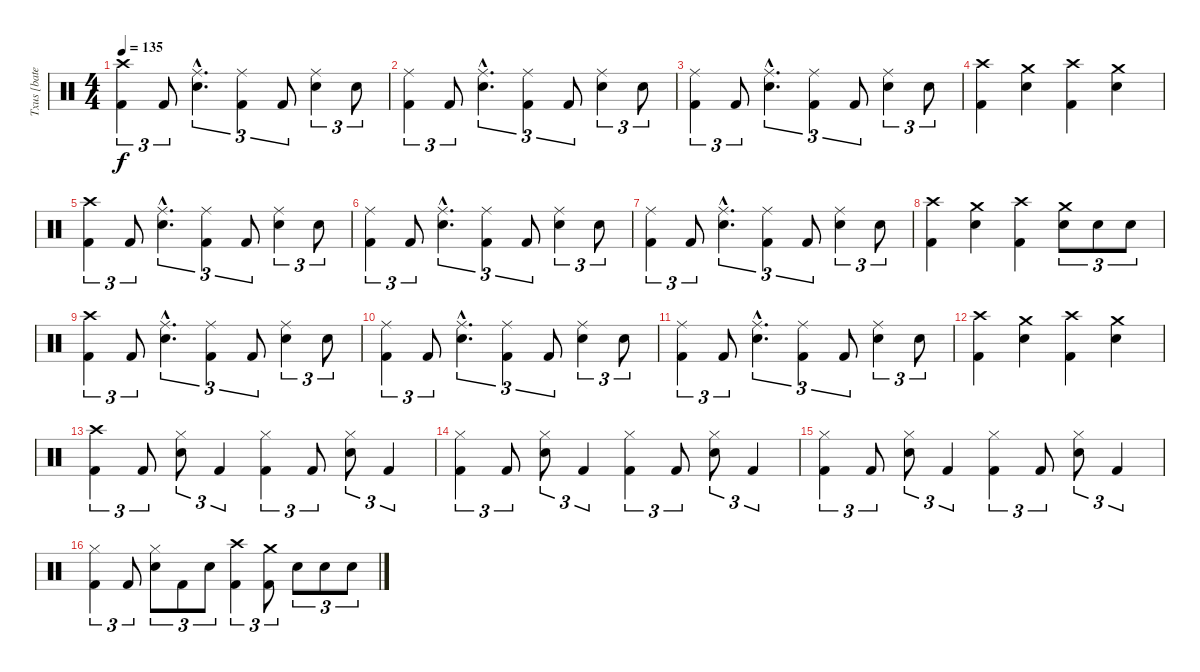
\track ("Txus [bateria]" "Txus [bate") {instrument percussion}
\staff {score}
\articulation defaults
\ts (4 4)
\tempo 135
\clef neutral
\ks c
("Crash high (hit)" "Kick (hit) 2").4{tu (3 2) dy f} "Kick (hit) 2".8{tu (3 2)} ("Ride (middle)"{hac} "Snare (hit) 2"{hac}).4{d tu (3 2)} ("Ride (middle)" "Kick (hit) 2").4{tu (3 2)} "Kick (hit) 2".8{tu (3 2)} ("Ride (middle)" "Snare (hit) 2").4{tu (3 2)} "Snare (hit) 2".8{tu (3 2)} |
("Ride (middle)" "Kick (hit) 2").4{tu (3 2)} "Kick (hit) 2".8{tu (3 2)} ("Ride (middle)"{hac} "Snare (hit) 2"{hac}).4{d tu (3 2)} ("Ride (middle)" "Kick (hit) 2").4{tu (3 2)} "Kick (hit) 2".8{tu (3 2)} ("Ride (middle)" "Snare (hit) 2").4{tu (3 2)} "Snare (hit) 2".8{tu (3 2)} |
("Ride (middle)" "Kick (hit) 2").4{tu (3 2)} "Kick (hit) 2".8{tu (3 2)} ("Ride (middle)"{hac} "Snare (hit) 2"{hac}).4{d tu (3 2)} ("Ride (middle)" "Kick (hit) 2").4{tu (3 2)} "Kick (hit) 2".8{tu (3 2)} ("Ride (middle)" "Snare (hit) 2").4{tu (3 2)} "Snare (hit) 2".8{tu (3 2)} |
("Crash high (hit)" "Kick (hit) 2").4 ("Crash medium (hit)" "Snare (hit) 2").4 ("Crash high (hit)" "Kick (hit) 2").4 ("Crash medium (hit)" "Snare (hit) 2").4 |
("Crash high (hit)" "Kick (hit) 2").4{tu (3 2)} "Kick (hit) 2".8{tu (3 2)} ("Ride (middle)"{hac} "Snare (hit) 2"{hac}).4{d tu (3 2)} ("Ride (middle)" "Kick (hit) 2").4{tu (3 2)} "Kick (hit) 2".8{tu (3 2)} ("Ride (middle)" "Snare (hit) 2").4{tu (3 2)} "Snare (hit) 2".8{tu (3 2)} |
("Ride (middle)" "Kick (hit) 2").4{tu (3 2)} "Kick (hit) 2".8{tu (3 2)} ("Ride (middle)"{hac} "Snare (hit) 2"{hac}).4{d tu (3 2)} ("Ride (middle)" "Kick (hit) 2").4{tu (3 2)} "Kick (hit) 2".8{tu (3 2)} ("Ride (middle)" "Snare (hit) 2").4{tu (3 2)} "Snare (hit) 2".8{tu (3 2)} |
("Ride (middle)" "Kick (hit) 2").4{tu (3 2)} "Kick (hit) 2".8{tu (3 2)} ("Ride (middle)"{hac} "Snare (hit) 2"{hac}).4{d tu (3 2)} ("Ride (middle)" "Kick (hit) 2").4{tu (3 2)} "Kick (hit) 2".8{tu (3 2)} ("Ride (middle)" "Snare (hit) 2").4{tu (3 2)} "Snare (hit) 2".8{tu (3 2)} |
("Crash high (hit)" "Kick (hit) 2").4 ("Crash medium (hit)" "Snare (hit) 2").4 ("Crash high (hit)" "Kick (hit) 2").4 ("Crash medium (hit)" "Snare (hit) 2").8{tu (3 2)} "Snare (hit) 2".8{tu (3 2)} "Snare (hit) 2".8{tu (3 2)} |
("Crash high (hit)" "Kick (hit) 2").4{tu (3 2)} "Kick (hit) 2".8{tu (3 2)} ("Ride (middle)"{hac} "Snare (hit) 2"{hac}).4{d tu (3 2)} ("Ride (middle)" "Kick (hit) 2").4{tu (3 2)} "Kick (hit) 2".8{tu (3 2)} ("Ride (middle)" "Snare (hit) 2").4{tu (3 2)} "Snare (hit) 2".8{tu (3 2)} |
("Ride (middle)" "Kick (hit) 2").4{tu (3 2)} "Kick (hit) 2".8{tu (3 2)} ("Ride (middle)"{hac} "Snare (hit) 2"{hac}).4{d tu (3 2)} ("Ride (middle)" "Kick (hit) 2").4{tu (3 2)} "Kick (hit) 2".8{tu (3 2)} ("Ride (middle)" "Snare (hit) 2").4{tu (3 2)} "Snare (hit) 2".8{tu (3 2)} |
("Ride (middle)" "Kick (hit) 2").4{tu (3 2)} "Kick (hit) 2".8{tu (3 2)} ("Ride (middle)"{hac} "Snare (hit) 2"{hac}).4{d tu (3 2)} ("Ride (middle)" "Kick (hit) 2").4{tu (3 2)} "Kick (hit) 2".8{tu (3 2)} ("Ride (middle)" "Snare (hit) 2").4{tu (3 2)} "Snare (hit) 2".8{tu (3 2)} |
("Crash high (hit)" "Kick (hit) 2").4 ("Crash medium (hit)" "Snare (hit) 2").4 ("Crash high (hit)" "Kick (hit) 2").4 ("Crash medium (hit)" "Snare (hit) 2").4 |
("Crash high (hit)" "Kick (hit) 2").4{tu (3 2)} "Kick (hit) 2".8{tu (3 2)} ("Hi-Hat (closed)" "Snare (hit) 2").8{tu (3 2)} "Kick (hit) 2".4{tu (3 2)} ("Hi-Hat (closed)" "Kick (hit) 2").4{tu (3 2)} "Kick (hit) 2".8{tu (3 2)} ("Hi-Hat (closed)" "Snare (hit) 2").8{tu (3 2)} "Kick (hit) 2".4{tu (3 2)} |
("Hi-Hat (closed)" "Kick (hit) 2").4{tu (3 2)} "Kick (hit) 2".8{tu (3 2)} ("Hi-Hat (closed)" "Snare (hit) 2").8{tu (3 2)} "Kick (hit) 2".4{tu (3 2)} ("Hi-Hat (closed)" "Kick (hit) 2").4{tu (3 2)} "Kick (hit) 2".8{tu (3 2)} ("Hi-Hat (closed)" "Snare (hit) 2").8{tu (3 2)} "Kick (hit) 2".4{tu (3 2)} |
("Hi-Hat (closed)" "Kick (hit) 2").4{tu (3 2)} "Kick (hit) 2".8{tu (3 2)} ("Hi-Hat (closed)" "Snare (hit) 2").8{tu (3 2)} "Kick (hit) 2".4{tu (3 2)} ("Hi-Hat (closed)" "Kick (hit) 2").4{tu (3 2)} "Kick (hit) 2".8{tu (3 2)} ("Hi-Hat (closed)" "Snare (hit) 2").8{tu (3 2)} "Kick (hit) 2".4{tu (3 2)} |
("Hi-Hat (closed)" "Kick (hit) 2").4{tu (3 2)} "Kick (hit) 2".8{tu (3 2)} ("Hi-Hat (closed)" "Snare (hit) 2").8{tu (3 2)} "Kick (hit) 2".8{tu (3 2)} "Snare (hit) 2".8{tu (3 2)} ("Crash high (hit)" "Kick (hit) 2").4{tu (3 2)} ("Crash medium (hit)" "Kick (hit) 2").8{tu (3 2)} "Snare (hit) 2".8{tu (3 2)} "Snare (hit) 2".8{tu (3 2)} "Snare (hit) 2".8{tu (3 2)}
